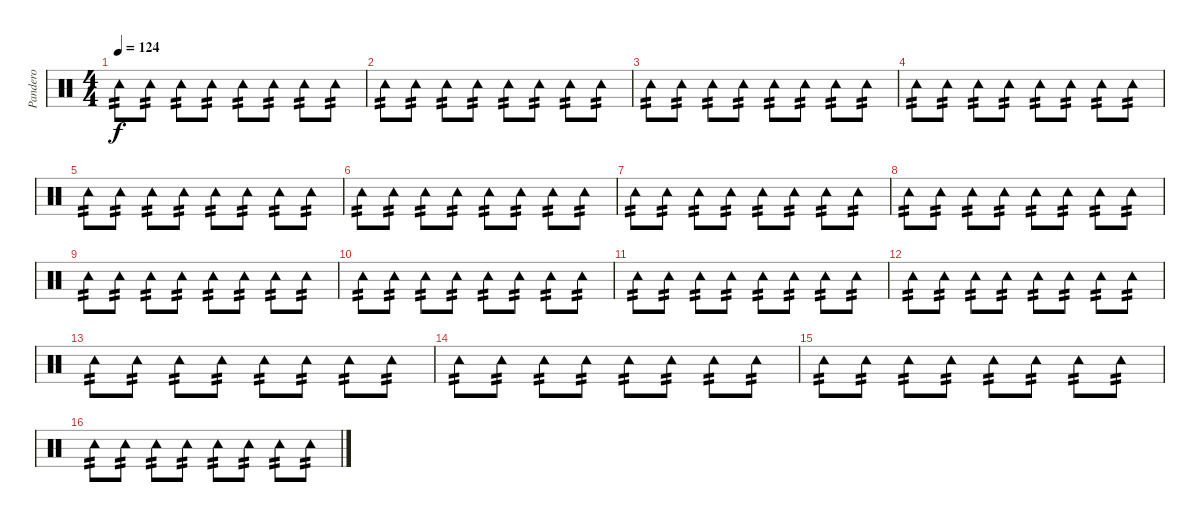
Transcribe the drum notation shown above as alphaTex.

\track ("Pandero" "Pandero") {instrument percussion}
\staff {score}
\articulation defaults
\ts (4 4)
\tempo 124
\clef neutral
\ks c "Tambourine (hit)".8{tp 2 dy f} "Tambourine (hit)".8{tp 2} "Tambourine (hit)".8{tp 2} "Tambourine (hit)".8{tp 2} "Tambourine (hit)".8{tp 2} "Tambourine (hit)".8{tp 2} "Tambourine (hit)".8{tp 2} "Tambourine (hit)".8{tp 2}
|
"Tambourine (hit)".8{tp 2} "Tambourine (hit)".8{tp 2} "Tambourine (hit)".8{tp 2} "Tambourine (hit)".8{tp 2} "Tambourine (hit)".8{tp 2} "Tambourine (hit)".8{tp 2} "Tambourine (hit)".8{tp 2} "Tambourine (hit)".8{tp 2} |
"Tambourine (hit)".8{tp 2} "Tambourine (hit)".8{tp 2} "Tambourine (hit)".8{tp 2} "Tambourine (hit)".8{tp 2} "Tambourine (hit)".8{tp 2} "Tambourine (hit)".8{tp 2} "Tambourine (hit)".8{tp 2} "Tambourine (hit)".8{tp 2} |
"Tambourine (hit)".8{tp 2} "Tambourine (hit)".8{tp 2} "Tambourine (hit)".8{tp 2} "Tambourine (hit)".8{tp 2} "Tambourine (hit)".8{tp 2} "Tambourine (hit)".8{tp 2} "Tambourine (hit)".8{tp 2} "Tambourine (hit)".8{tp 2} |
"Tambourine (hit)".8{tp 2} "Tambourine (hit)".8{tp 2} "Tambourine (hit)".8{tp 2} "Tambourine (hit)".8{tp 2} "Tambourine (hit)".8{tp 2} "Tambourine (hit)".8{tp 2} "Tambourine (hit)".8{tp 2} "Tambourine (hit)".8{tp 2} |
"Tambourine (hit)".8{tp 2} "Tambourine (hit)".8{tp 2} "Tambourine (hit)".8{tp 2} "Tambourine (hit)".8{tp 2} "Tambourine (hit)".8{tp 2} "Tambourine (hit)".8{tp 2} "Tambourine (hit)".8{tp 2} "Tambourine (hit)".8{tp 2} |
"Tambourine (hit)".8{tp 2} "Tambourine (hit)".8{tp 2} "Tambourine (hit)".8{tp 2} "Tambourine (hit)".8{tp 2} "Tambourine (hit)".8{tp 2} "Tambourine (hit)".8{tp 2} "Tambourine (hit)".8{tp 2} "Tambourine (hit)".8{tp 2} |
"Tambourine (hit)".8{tp 2} "Tambourine (hit)".8{tp 2} "Tambourine (hit)".8{tp 2} "Tambourine (hit)".8{tp 2} "Tambourine (hit)".8{tp 2} "Tambourine (hit)".8{tp 2} "Tambourine (hit)".8{tp 2} "Tambourine (hit)".8{tp 2} |
"Tambourine (hit)".8{tp 2} "Tambourine (hit)".8{tp 2} "Tambourine (hit)".8{tp 2} "Tambourine (hit)".8{tp 2} "Tambourine (hit)".8{tp 2} "Tambourine (hit)".8{tp 2} "Tambourine (hit)".8{tp 2} "Tambourine (hit)".8{tp 2} |
"Tambourine (hit)".8{tp 2} "Tambourine (hit)".8{tp 2} "Tambourine (hit)".8{tp 2} "Tambourine (hit)".8{tp 2} "Tambourine (hit)".8{tp 2} "Tambourine (hit)".8{tp 2} "Tambourine (hit)".8{tp 2} "Tambourine (hit)".8{tp 2} |
"Tambourine (hit)".8{tp 2} "Tambourine (hit)".8{tp 2} "Tambourine (hit)".8{tp 2} "Tambourine (hit)".8{tp 2} "Tambourine (hit)".8{tp 2} "Tambourine (hit)".8{tp 2} "Tambourine (hit)".8{tp 2} "Tambourine (hit)".8{tp 2} |
"Tambourine (hit)".8{tp 2} "Tambourine (hit)".8{tp 2} "Tambourine (hit)".8{tp 2} "Tambourine (hit)".8{tp 2} "Tambourine (hit)".8{tp 2} "Tambourine (hit)".8{tp 2} "Tambourine (hit)".8{tp 2} "Tambourine (hit)".8{tp 2} |
"Tambourine (hit)".8{tp 2} "Tambourine (hit)".8{tp 2} "Tambourine (hit)".8{tp 2} "Tambourine (hit)".8{tp 2} "Tambourine (hit)".8{tp 2} "Tambourine (hit)".8{tp 2} "Tambourine (hit)".8{tp 2} "Tambourine (hit)".8{tp 2} |
"Tambourine (hit)".8{tp 2} "Tambourine (hit)".8{tp 2} "Tambourine (hit)".8{tp 2} "Tambourine (hit)".8{tp 2} "Tambourine (hit)".8{tp 2} "Tambourine (hit)".8{tp 2} "Tambourine (hit)".8{tp 2} "Tambourine (hit)".8{tp 2} |
"Tambourine (hit)".8{tp 2} "Tambourine (hit)".8{tp 2} "Tambourine (hit)".8{tp 2} "Tambourine (hit)".8{tp 2} "Tambourine (hit)".8{tp 2} "Tambourine (hit)".8{tp 2} "Tambourine (hit)".8{tp 2} "Tambourine (hit)".8{tp 2} |
"Tambourine (hit)".8{tp 2} "Tambourine (hit)".8{tp 2} "Tambourine (hit)".8{tp 2} "Tambourine (hit)".8{tp 2} "Tambourine (hit)".8{tp 2} "Tambourine (hit)".8{tp 2} "Tambourine (hit)".8{tp 2} "Tambourine (hit)".8{tp 2}
